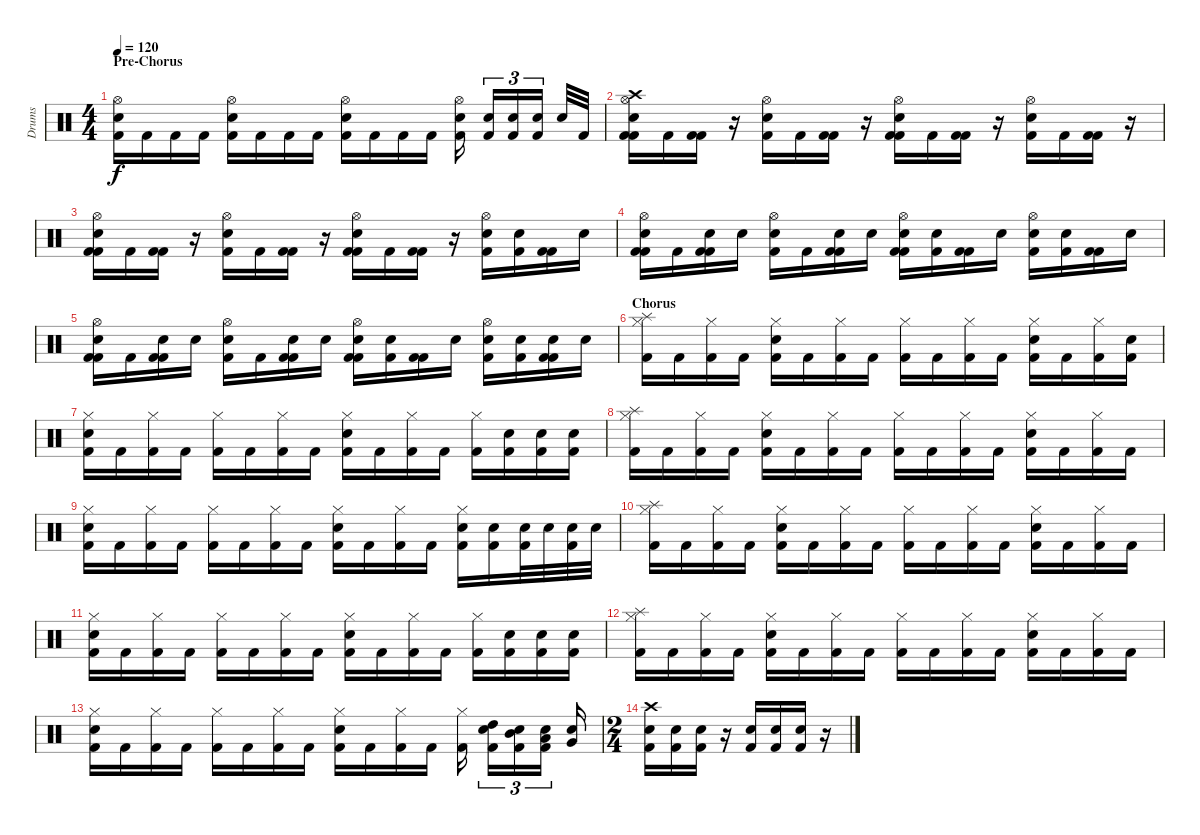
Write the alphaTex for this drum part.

\track ("Drums" "Drums") {instrument percussion}
\staff {score}
\articulation defaults
\ts (4 4)
\section ("" "Pre-Chorus")
\tempo 120
\clef neutral
\ks c
("Hi-Hat (open)" "Electric Snare (hit)" "Kick (hit) 2").16{dy f} "Kick (hit) 2".16 "Kick (hit) 2".16 "Kick (hit) 2".16 ("Hi-Hat (open)" "Electric Snare (hit)" "Kick (hit) 2").16 "Kick (hit) 2".16 "Kick (hit) 2".16 "Kick (hit) 2".16 ("Hi-Hat (open)" "Electric Snare (hit)" "Kick (hit) 2").16 "Kick (hit) 2".16 "Kick (hit) 2".16 "Kick (hit) 2".16 ("Hi-Hat (open)" "Electric Snare (hit)" "Kick (hit) 2").16 ("Electric Snare (hit)" "Kick (hit) 2").16{tu (3 2)} ("Electric Snare (hit)" "Kick (hit) 2").16{tu (3 2)} ("Electric Snare (hit)" "Kick (hit) 2").16{tu (3 2)} "Electric Snare (hit)".32 "Kick (hit) 2".32 |
("Crash high (hit)" "Hi-Hat (open)" "Electric Snare (hit)" "Kick (hit) 2" "Kick (hit) 2").16 "Kick (hit) 2".16 ("Kick (hit) 2" "Kick (hit) 2").16 r.16 ("Hi-Hat (open)" "Electric Snare (hit)" "Kick (hit) 2").16 "Kick (hit) 2".16 ("Kick (hit) 2" "Kick (hit) 2").16 r.16 ("Hi-Hat (open)" "Electric Snare (hit)" "Kick (hit) 2" "Kick (hit) 2").16 "Kick (hit) 2".16 ("Kick (hit) 2" "Kick (hit) 2").16 r.16 ("Hi-Hat (open)" "Electric Snare (hit)" "Kick (hit) 2").16 "Kick (hit) 2".16 ("Kick (hit) 2" "Kick (hit) 2").16 r.16 |
("Hi-Hat (open)" "Electric Snare (hit)" "Kick (hit) 2" "Kick (hit) 2").16 "Kick (hit) 2".16 ("Kick (hit) 2" "Kick (hit) 2").16 r.16 ("Hi-Hat (open)" "Electric Snare (hit)" "Kick (hit) 2").16 "Kick (hit) 2".16 ("Kick (hit) 2" "Kick (hit) 2").16 r.16 ("Hi-Hat (open)" "Electric Snare (hit)" "Kick (hit) 2" "Kick (hit) 2").16 "Kick (hit) 2".16 ("Kick (hit) 2" "Kick (hit) 2").16 r.16 ("Hi-Hat (open)" "Electric Snare (hit)" "Kick (hit) 2").16 ("Electric Snare (hit)" "Kick (hit) 2").16 ("Kick (hit) 2" "Kick (hit) 2").16 "Electric Snare (hit)".16 |
("Hi-Hat (open)" "Electric Snare (hit)" "Kick (hit) 2" "Kick (hit) 2").16 "Kick (hit) 2".16 ("Electric Snare (hit)" "Kick (hit) 2" "Kick (hit) 2").16 "Electric Snare (hit)".16 ("Hi-Hat (open)" "Electric Snare (hit)" "Kick (hit) 2").16 "Kick (hit) 2".16 ("Electric Snare (hit)" "Kick (hit) 2" "Kick (hit) 2").16 "Electric Snare (hit)".16 ("Hi-Hat (open)" "Electric Snare (hit)" "Kick (hit) 2" "Kick (hit) 2").16 ("Electric Snare (hit)" "Kick (hit) 2").16 ("Kick (hit) 2" "Kick (hit) 2").16 "Electric Snare (hit)".16 ("Hi-Hat (open)" "Electric Snare (hit)" "Kick (hit) 2").16 ("Electric Snare (hit)" "Kick (hit) 2").16 ("Kick (hit) 2" "Kick (hit) 2").16 "Electric Snare (hit)".16 |
("Hi-Hat (open)" "Electric Snare (hit)" "Kick (hit) 2" "Kick (hit) 2").16 "Kick (hit) 2".16 ("Electric Snare (hit)" "Kick (hit) 2" "Kick (hit) 2").16 "Electric Snare (hit)".16 ("Hi-Hat (open)" "Electric Snare (hit)" "Kick (hit) 2").16 "Kick (hit) 2".16 ("Electric Snare (hit)" "Kick (hit) 2" "Kick (hit) 2").16 "Electric Snare (hit)".16 ("Hi-Hat (open)" "Electric Snare (hit)" "Kick (hit) 2" "Kick (hit) 2").16 ("Electric Snare (hit)" "Kick (hit) 2").16 ("Kick (hit) 2" "Kick (hit) 2").16 "Electric Snare (hit)".16 ("Hi-Hat (open)" "Electric Snare (hit)" "Kick (hit) 2").16 ("Electric Snare (hit)" "Kick (hit) 2").16 ("Electric Snare (hit)" "Kick (hit) 2" "Kick (hit) 2").16 "Electric Snare (hit)".16 |
\section ("" "Chorus")
("Splash (hit)" "Hi-Hat (closed)" "Kick (hit) 2").16 "Kick (hit) 2".16 ("Hi-Hat (closed)" "Kick (hit) 2").16 "Kick (hit) 2".16 ("Hi-Hat (closed)" "Electric Snare (hit)" "Kick (hit) 2").16 "Kick (hit) 2".16 ("Hi-Hat (closed)" "Kick (hit) 2").16 "Kick (hit) 2".16 ("Hi-Hat (closed)" "Kick (hit) 2").16 "Kick (hit) 2".16 ("Hi-Hat (closed)" "Kick (hit) 2").16 "Kick (hit) 2".16 ("Hi-Hat (closed)" "Electric Snare (hit)" "Kick (hit) 2").16 "Kick (hit) 2".16 ("Hi-Hat (closed)" "Kick (hit) 2").16 ("Electric Snare (hit)" "Kick (hit) 2").16 |
("Hi-Hat (closed)" "Electric Snare (hit)" "Kick (hit) 2").16 "Kick (hit) 2".16 ("Hi-Hat (closed)" "Kick (hit) 2").16 "Kick (hit) 2".16 ("Hi-Hat (closed)" "Kick (hit) 2").16 "Kick (hit) 2".16 ("Hi-Hat (closed)" "Kick (hit) 2").16 "Kick (hit) 2".16 ("Hi-Hat (closed)" "Electric Snare (hit)" "Kick (hit) 2").16 "Kick (hit) 2".16 ("Hi-Hat (closed)" "Kick (hit) 2").16 "Kick (hit) 2".16 ("Hi-Hat (closed)" "Kick (hit) 2").16 ("Electric Snare (hit)" "Kick (hit) 2").16 ("Electric Snare (hit)" "Kick (hit) 2").16 ("Electric Snare (hit)" "Kick (hit) 2").16 |
("Splash (hit)" "Hi-Hat (closed)" "Kick (hit) 2").16 "Kick (hit) 2".16 ("Hi-Hat (closed)" "Kick (hit) 2").16 "Kick (hit) 2".16 ("Hi-Hat (closed)" "Electric Snare (hit)" "Kick (hit) 2").16 "Kick (hit) 2".16 ("Hi-Hat (closed)" "Kick (hit) 2").16 "Kick (hit) 2".16 ("Hi-Hat (closed)" "Kick (hit) 2").16 "Kick (hit) 2".16 ("Hi-Hat (closed)" "Kick (hit) 2").16 "Kick (hit) 2".16 ("Hi-Hat (closed)" "Electric Snare (hit)" "Kick (hit) 2").16 "Kick (hit) 2".16 ("Hi-Hat (closed)" "Kick (hit) 2").16 "Kick (hit) 2".16 |
("Hi-Hat (closed)" "Electric Snare (hit)" "Kick (hit) 2").16 "Kick (hit) 2".16 ("Hi-Hat (closed)" "Kick (hit) 2").16 "Kick (hit) 2".16 ("Hi-Hat (closed)" "Kick (hit) 2").16 "Kick (hit) 2".16 ("Hi-Hat (closed)" "Kick (hit) 2").16 "Kick (hit) 2".16 ("Hi-Hat (closed)" "Electric Snare (hit)" "Kick (hit) 2").16 "Kick (hit) 2".16 ("Hi-Hat (closed)" "Kick (hit) 2").16 "Kick (hit) 2".16 ("Hi-Hat (closed)" "Electric Snare (hit)" "Kick (hit) 2").16 ("Electric Snare (hit)" "Kick (hit) 2").16 ("Electric Snare (hit)" "Kick (hit) 2").32 "Electric Snare (hit)".32 ("Electric Snare (hit)" "Kick (hit) 2").32 "Electric Snare (hit)".32 |
("Splash (hit)" "Hi-Hat (closed)" "Kick (hit) 2").16 "Kick (hit) 2".16 ("Hi-Hat (closed)" "Kick (hit) 2").16 "Kick (hit) 2".16 ("Hi-Hat (closed)" "Electric Snare (hit)" "Kick (hit) 2").16 "Kick (hit) 2".16 ("Hi-Hat (closed)" "Kick (hit) 2").16 "Kick (hit) 2".16 ("Hi-Hat (closed)" "Kick (hit) 2").16 "Kick (hit) 2".16 ("Hi-Hat (closed)" "Kick (hit) 2").16 "Kick (hit) 2".16 ("Hi-Hat (closed)" "Electric Snare (hit)" "Kick (hit) 2").16 "Kick (hit) 2".16 ("Hi-Hat (closed)" "Kick (hit) 2").16 "Kick (hit) 2".16 |
("Hi-Hat (closed)" "Electric Snare (hit)" "Kick (hit) 2").16 "Kick (hit) 2".16 ("Hi-Hat (closed)" "Kick (hit) 2").16 "Kick (hit) 2".16 ("Hi-Hat (closed)" "Kick (hit) 2").16 "Kick (hit) 2".16 ("Hi-Hat (closed)" "Kick (hit) 2").16 "Kick (hit) 2".16 ("Hi-Hat (closed)" "Electric Snare (hit)" "Kick (hit) 2").16 "Kick (hit) 2".16 ("Hi-Hat (closed)" "Kick (hit) 2").16 "Kick (hit) 2".16 ("Hi-Hat (closed)" "Kick (hit) 2").16 ("Electric Snare (hit)" "Kick (hit) 2").16 ("Electric Snare (hit)" "Kick (hit) 2").16 ("Electric Snare (hit)" "Kick (hit) 2").16 |
("Splash (hit)" "Hi-Hat (closed)" "Kick (hit) 2").16 "Kick (hit) 2".16 ("Hi-Hat (closed)" "Kick (hit) 2").16 "Kick (hit) 2".16 ("Hi-Hat (closed)" "Electric Snare (hit)" "Kick (hit) 2").16 "Kick (hit) 2".16 ("Hi-Hat (closed)" "Kick (hit) 2").16 "Kick (hit) 2".16 ("Hi-Hat (closed)" "Kick (hit) 2").16 "Kick (hit) 2".16 ("Hi-Hat (closed)" "Kick (hit) 2").16 "Kick (hit) 2".16 ("Hi-Hat (closed)" "Electric Snare (hit)" "Kick (hit) 2").16 "Kick (hit) 2".16 ("Hi-Hat (closed)" "Kick (hit) 2").16 "Kick (hit) 2".16 |
("Hi-Hat (closed)" "Electric Snare (hit)" "Kick (hit) 2").16 "Kick (hit) 2".16 ("Hi-Hat (closed)" "Kick (hit) 2").16 "Kick (hit) 2".16 ("Hi-Hat (closed)" "Kick (hit) 2").16 "Kick (hit) 2".16 ("Hi-Hat (closed)" "Kick (hit) 2").16 "Kick (hit) 2".16 ("Hi-Hat (closed)" "Electric Snare (hit)" "Kick (hit) 2").16 "Kick (hit) 2".16 ("Hi-Hat (closed)" "Kick (hit) 2").16 "Kick (hit) 2".16 ("Hi-Hat (closed)" "Kick (hit) 2").16 ("Electric Snare (hit)" "High Tom (hit)" "Kick (hit) 2").16{tu (3 2)} ("Electric Snare (hit)" "Mid Tom (hit)" "Kick (hit) 2").16{tu (3 2)} ("Electric Snare (hit)" "Low Tom (hit)" "Kick (hit) 2").16{tu (3 2)} ("Electric Snare (hit)" "Very Low Tom (hit)").16 |
\ts (2 4)
("Crash high (hit)" "Electric Snare (hit)" "Kick (hit) 2").16 ("Electric Snare (hit)" "Kick (hit) 2").16 ("Electric Snare (hit)" "Kick (hit) 2").16 r.16 ("Electric Snare (hit)" "Kick (hit) 2").16 ("Electric Snare (hit)" "Kick (hit) 2").16 ("Electric Snare (hit)" "Kick (hit) 2").16 r.16
